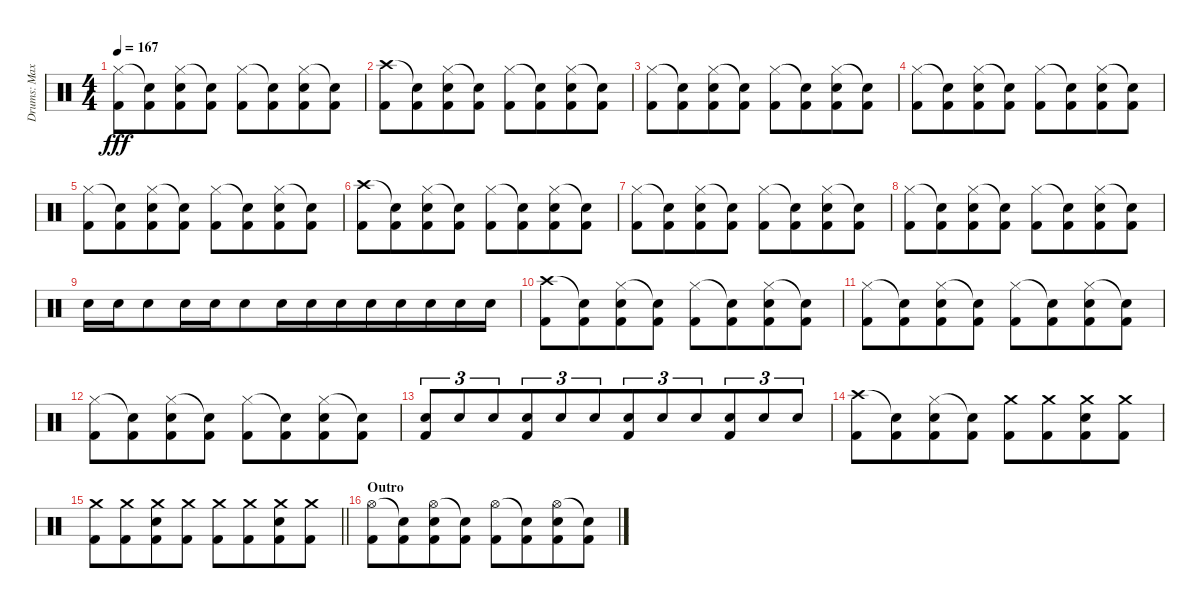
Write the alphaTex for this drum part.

\track ("Drums: Max" "Drums: Max") {instrument percussion}
\staff {score}
\articulation defaults
\ts (4 4)
\tempo 167
\clef neutral
\ks c
("Hi-Hat (closed)" "Kick (hit) 2").8{dy fff} ("Snare (hit)"{t} "Kick (hit) 2").8{beam merge} ("Hi-Hat (closed)" "Electric Snare (hit)" "Kick (hit) 2").8 ("Snare (hit)"{t} "Kick (hit) 2").8 ("Hi-Hat (closed)" "Kick (hit) 2").8 ("Snare (hit)"{t} "Kick (hit) 2").8{beam merge} ("Hi-Hat (closed)" "Electric Snare (hit)" "Kick (hit) 2").8 ("Snare (hit)"{t} "Kick (hit) 2").8 |
("Crash high (hit)" "Kick (hit) 2").8 ("Snare (hit)"{t} "Kick (hit) 2").8{beam merge} ("Hi-Hat (closed)" "Electric Snare (hit)" "Kick (hit) 2").8 ("Snare (hit)"{t} "Kick (hit) 2").8 ("Hi-Hat (closed)" "Kick (hit) 2").8 ("Snare (hit)"{t} "Kick (hit) 2").8{beam merge} ("Hi-Hat (closed)" "Electric Snare (hit)" "Kick (hit) 2").8 ("Snare (hit)"{t} "Kick (hit) 2").8 |
("Hi-Hat (closed)" "Kick (hit) 2").8 ("Snare (hit)"{t} "Kick (hit) 2").8{beam merge} ("Hi-Hat (closed)" "Electric Snare (hit)" "Kick (hit) 2").8 ("Snare (hit)"{t} "Kick (hit) 2").8 ("Hi-Hat (closed)" "Kick (hit) 2").8 ("Snare (hit)"{t} "Kick (hit) 2").8{beam merge} ("Hi-Hat (closed)" "Electric Snare (hit)" "Kick (hit) 2").8 ("Snare (hit)"{t} "Kick (hit) 2").8 |
("Hi-Hat (closed)" "Kick (hit) 2").8 ("Snare (hit)"{t} "Kick (hit) 2").8{beam merge} ("Hi-Hat (closed)" "Electric Snare (hit)" "Kick (hit) 2").8 ("Snare (hit)"{t} "Kick (hit) 2").8 ("Hi-Hat (closed)" "Kick (hit) 2").8 ("Snare (hit)"{t} "Kick (hit) 2").8{beam merge} ("Hi-Hat (closed)" "Electric Snare (hit)" "Kick (hit) 2").8 ("Snare (hit)"{t} "Kick (hit) 2").8 |
("Hi-Hat (closed)" "Kick (hit) 2").8 ("Snare (hit)"{t} "Kick (hit) 2").8{beam merge} ("Hi-Hat (closed)" "Electric Snare (hit)" "Kick (hit) 2").8 ("Snare (hit)"{t} "Kick (hit) 2").8 ("Hi-Hat (closed)" "Kick (hit) 2").8 ("Snare (hit)"{t} "Kick (hit) 2").8{beam merge} ("Hi-Hat (closed)" "Electric Snare (hit)" "Kick (hit) 2").8 ("Snare (hit)"{t} "Kick (hit) 2").8 |
("Crash high (hit)" "Kick (hit) 2").8 ("Snare (hit)"{t} "Kick (hit) 2").8{beam merge} ("Hi-Hat (closed)" "Electric Snare (hit)" "Kick (hit) 2").8 ("Snare (hit)"{t} "Kick (hit) 2").8 ("Hi-Hat (closed)" "Kick (hit) 2").8 ("Snare (hit)"{t} "Kick (hit) 2").8{beam merge} ("Hi-Hat (closed)" "Electric Snare (hit)" "Kick (hit) 2").8 ("Snare (hit)"{t} "Kick (hit) 2").8 |
("Hi-Hat (closed)" "Kick (hit) 2").8 ("Snare (hit)"{t} "Kick (hit) 2").8{beam merge} ("Hi-Hat (closed)" "Electric Snare (hit)" "Kick (hit) 2").8 ("Snare (hit)"{t} "Kick (hit) 2").8 ("Hi-Hat (closed)" "Kick (hit) 2").8 ("Snare (hit)"{t} "Kick (hit) 2").8{beam merge} ("Hi-Hat (closed)" "Electric Snare (hit)" "Kick (hit) 2").8 ("Snare (hit)"{t} "Kick (hit) 2").8 |
("Hi-Hat (closed)" "Kick (hit) 2").8 ("Snare (hit)"{t} "Kick (hit) 2").8{beam merge} ("Hi-Hat (closed)" "Electric Snare (hit)" "Kick (hit) 2").8 ("Snare (hit)"{t} "Kick (hit) 2").8 ("Hi-Hat (closed)" "Kick (hit) 2").8 ("Snare (hit)"{t} "Kick (hit) 2").8{beam merge} ("Hi-Hat (closed)" "Electric Snare (hit)" "Kick (hit) 2").8 ("Snare (hit)"{t} "Kick (hit) 2").8 |
"Electric Snare (hit)".16{beam merge} "Electric Snare (hit)".16{beam merge} "Electric Snare (hit)".8{beam merge} "Electric Snare (hit)".16{beam merge} "Electric Snare (hit)".16{beam merge} "Electric Snare (hit)".8{beam merge} "Electric Snare (hit)".16{beam merge} "Electric Snare (hit)".16{beam merge} "Electric Snare (hit)".16{beam merge} "Electric Snare (hit)".16{beam merge} "Electric Snare (hit)".16{beam merge} "Electric Snare (hit)".16{beam merge} "Electric Snare (hit)".16{beam merge} "Electric Snare (hit)".16 |
("Crash high (hit)" "Kick (hit) 2").8 ("Snare (hit)"{t} "Kick (hit) 2").8{beam merge} ("Hi-Hat (closed)" "Electric Snare (hit)" "Kick (hit) 2").8 ("Snare (hit)"{t} "Kick (hit) 2").8 ("Hi-Hat (closed)" "Kick (hit) 2").8 ("Snare (hit)"{t} "Kick (hit) 2").8{beam merge} ("Hi-Hat (closed)" "Electric Snare (hit)" "Kick (hit) 2").8 ("Snare (hit)"{t} "Kick (hit) 2").8 |
("Hi-Hat (closed)" "Kick (hit) 2").8 ("Snare (hit)"{t} "Kick (hit) 2").8{beam merge} ("Hi-Hat (closed)" "Electric Snare (hit)" "Kick (hit) 2").8 ("Snare (hit)"{t} "Kick (hit) 2").8 ("Hi-Hat (closed)" "Kick (hit) 2").8 ("Snare (hit)"{t} "Kick (hit) 2").8{beam merge} ("Hi-Hat (closed)" "Electric Snare (hit)" "Kick (hit) 2").8 ("Snare (hit)"{t} "Kick (hit) 2").8 |
("Hi-Hat (closed)" "Kick (hit) 2").8 ("Snare (hit)"{t} "Kick (hit) 2").8{beam merge} ("Hi-Hat (closed)" "Electric Snare (hit)" "Kick (hit) 2").8 ("Snare (hit)"{t} "Kick (hit) 2").8 ("Hi-Hat (closed)" "Kick (hit) 2").8 ("Snare (hit)"{t} "Kick (hit) 2").8{beam merge} ("Hi-Hat (closed)" "Electric Snare (hit)" "Kick (hit) 2").8 ("Snare (hit)"{t} "Kick (hit) 2").8 |
("Electric Snare (hit)" "Kick (hit) 2").8{tu (3 2) beam merge} "Electric Snare (hit)".8{tu (3 2) beam merge} "Electric Snare (hit)".8{tu (3 2) beam merge} ("Electric Snare (hit)" "Kick (hit) 2").8{tu (3 2) beam merge} "Electric Snare (hit)".8{tu (3 2) beam merge} "Electric Snare (hit)".8{tu (3 2) beam merge} ("Electric Snare (hit)" "Kick (hit) 2").8{tu (3 2) beam merge} "Electric Snare (hit)".8{tu (3 2) beam merge} "Electric Snare (hit)".8{tu (3 2) beam merge} ("Electric Snare (hit)" "Kick (hit) 2").8{tu (3 2) beam merge} "Electric Snare (hit)".8{tu (3 2) beam merge} "Electric Snare (hit)".8{tu (3 2)} |
("Crash high (hit)" "Kick (hit) 2").8 ("Snare (hit)"{t} "Kick (hit) 2").8{beam merge} ("Hi-Hat (closed)" "Electric Snare (hit)" "Kick (hit) 2").8 ("Snare (hit)"{t} "Kick (hit) 2").8 ("Crash medium (hit)" "Kick (hit) 2").8 ("Crash medium (hit)" "Kick (hit) 2").8{beam merge} ("Crash medium (hit)" "Electric Snare (hit)" "Kick (hit) 2").8 ("Crash medium (hit)" "Kick (hit) 2").8 |
\barLineRight lightlight
("Crash medium (hit)" "Kick (hit) 2").8 ("Crash medium (hit)" "Kick (hit) 2").8{beam merge} ("Crash medium (hit)" "Electric Snare (hit)" "Kick (hit) 2").8 ("Crash medium (hit)" "Kick (hit) 2").8 ("Crash medium (hit)" "Kick (hit) 2").8 ("Crash medium (hit)" "Kick (hit) 2").8{beam merge} ("Crash medium (hit)" "Electric Snare (hit)" "Kick (hit) 2").8 ("Crash medium (hit)" "Kick (hit) 2").8 |
\section ("" "Outro")
("Hi-Hat (open)" "Kick (hit) 2").8 ("Snare (hit)"{t} "Kick (hit) 2").8{beam merge} ("Hi-Hat (open)" "Electric Snare (hit)" "Kick (hit) 2").8 ("Snare (hit)"{t} "Kick (hit) 2").8 ("Hi-Hat (open)" "Kick (hit) 2").8 ("Snare (hit)"{t} "Kick (hit) 2").8{beam merge} ("Hi-Hat (open)" "Electric Snare (hit)" "Kick (hit) 2").8 ("Snare (hit)"{t} "Kick (hit) 2").8
